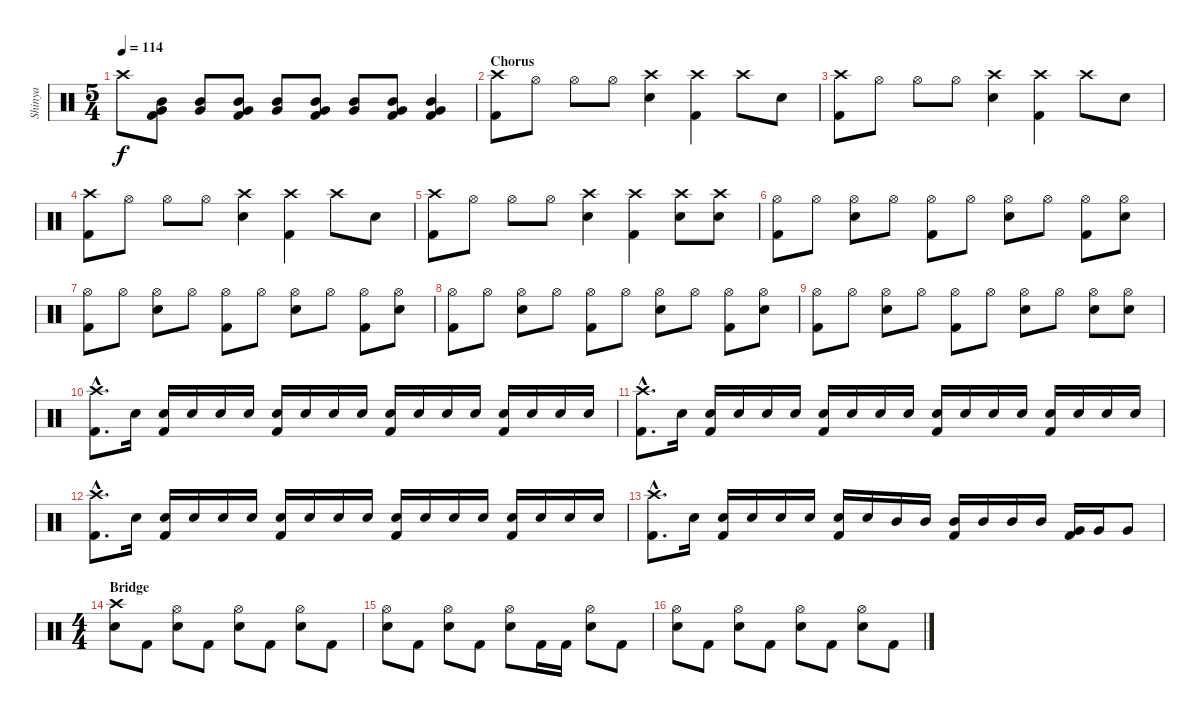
\track ("Shinya" "Shinya") {instrument percussion}
\staff {score}
\articulation defaults
\ts (5 4)
\tempo 114
\clef neutral
\ks c "Crash high (hit)".8{dy f}
("Kick (hit) 2" "Very Low Tom (hit)" "Mid Tom (hit)").8 ("Mid Tom (hit)" "Very Low Tom (hit)").8 ("Very Low Tom (hit)" "Kick (hit) 2" "Mid Tom (hit)").8 ("Mid Tom (hit)" "Very Low Tom (hit)").8 ("Very Low Tom (hit)" "Kick (hit) 2" "Mid Tom (hit)").8 ("Mid Tom (hit)" "Very Low Tom (hit)").8 ("Very Low Tom (hit)" "Kick (hit) 2" "Mid Tom (hit)").8 ("Very Low Tom (hit)" "Mid Tom (hit)" "Kick (hit) 2").4 |
\section ("" "Chorus")
("Crash high (hit)" "Kick (hit) 2").8 "Hi-Hat (open)".8 "Hi-Hat (open)".8 "Hi-Hat (open)".8 ("Crash high (hit)" "Snare (hit) 2").4 ("Crash high (hit)" "Kick (hit) 2").4 "Crash high (hit)".8 "Snare (hit) 2".8 |
("Crash high (hit)" "Kick (hit) 2").8 "Hi-Hat (open)".8 "Hi-Hat (open)".8 "Hi-Hat (open)".8 ("Crash high (hit)" "Snare (hit) 2").4 ("Crash high (hit)" "Kick (hit) 2").4 "Crash high (hit)".8 "Snare (hit) 2".8 |
("Crash high (hit)" "Kick (hit) 2").8 "Hi-Hat (open)".8 "Hi-Hat (open)".8 "Hi-Hat (open)".8 ("Crash high (hit)" "Snare (hit) 2").4 ("Crash high (hit)" "Kick (hit) 2").4 "Crash high (hit)".8 "Snare (hit) 2".8 |
("Crash high (hit)" "Kick (hit) 2").8 "Hi-Hat (open)".8 "Hi-Hat (open)".8 "Hi-Hat (open)".8 ("Crash high (hit)" "Snare (hit) 2").4 ("Crash high (hit)" "Kick (hit) 2").4 ("Crash high (hit)" "Snare (hit) 2").8 ("Crash high (hit)" "Snare (hit) 2").8 |
("Hi-Hat (open)" "Kick (hit) 2").8 "Hi-Hat (open)".8 ("Hi-Hat (open)" "Snare (hit) 2").8 "Hi-Hat (open)".8 ("Hi-Hat (open)" "Kick (hit) 2").8 "Hi-Hat (open)".8 ("Hi-Hat (open)" "Snare (hit) 2").8 "Hi-Hat (open)".8 ("Hi-Hat (open)" "Kick (hit) 2").8 ("Hi-Hat (open)" "Snare (hit) 2").8 |
("Hi-Hat (open)" "Kick (hit) 2").8 "Hi-Hat (open)".8 ("Hi-Hat (open)" "Snare (hit) 2").8 "Hi-Hat (open)".8 ("Hi-Hat (open)" "Kick (hit) 2").8 "Hi-Hat (open)".8 ("Hi-Hat (open)" "Snare (hit) 2").8 "Hi-Hat (open)".8 ("Hi-Hat (open)" "Kick (hit) 2").8 ("Hi-Hat (open)" "Snare (hit) 2").8 |
("Hi-Hat (open)" "Kick (hit) 2").8 "Hi-Hat (open)".8 ("Hi-Hat (open)" "Snare (hit) 2").8 "Hi-Hat (open)".8 ("Hi-Hat (open)" "Kick (hit) 2").8 "Hi-Hat (open)".8 ("Hi-Hat (open)" "Snare (hit) 2").8 "Hi-Hat (open)".8 ("Hi-Hat (open)" "Kick (hit) 2").8 ("Hi-Hat (open)" "Snare (hit) 2").8 |
("Hi-Hat (open)" "Kick (hit) 2").8 "Hi-Hat (open)".8 ("Hi-Hat (open)" "Snare (hit) 2").8 "Hi-Hat (open)".8 ("Hi-Hat (open)" "Kick (hit) 2").8 "Hi-Hat (open)".8 ("Hi-Hat (open)" "Snare (hit) 2").8 "Hi-Hat (open)".8 ("Hi-Hat (open)" "Snare (hit) 2").8 ("Hi-Hat (open)" "Snare (hit) 2").8 |
("Crash high (hit)"{hac} "Kick (hit) 2"{hac}).8{d} "Snare (hit) 2".16 ("Snare (hit) 2" "Kick (hit) 2").16 "Snare (hit) 2".16 "Snare (hit) 2".16 "Snare (hit) 2".16 ("Snare (hit) 2" "Kick (hit) 2").16 "Snare (hit) 2".16 "Snare (hit) 2".16 "Snare (hit) 2".16 ("Snare (hit) 2" "Kick (hit) 2").16 "Snare (hit) 2".16 "Snare (hit) 2".16 "Snare (hit) 2".16 ("Snare (hit) 2" "Kick (hit) 2").16 "Snare (hit) 2".16 "Snare (hit) 2".16 "Snare (hit) 2".16 |
("Crash high (hit)"{hac} "Kick (hit) 2"{hac}).8{d} "Snare (hit) 2".16 ("Snare (hit) 2" "Kick (hit) 2").16 "Snare (hit) 2".16 "Snare (hit) 2".16 "Snare (hit) 2".16 ("Snare (hit) 2" "Kick (hit) 2").16 "Snare (hit) 2".16 "Snare (hit) 2".16 "Snare (hit) 2".16 ("Snare (hit) 2" "Kick (hit) 2").16 "Snare (hit) 2".16 "Snare (hit) 2".16 "Snare (hit) 2".16 ("Snare (hit) 2" "Kick (hit) 2").16 "Snare (hit) 2".16 "Snare (hit) 2".16 "Snare (hit) 2".16 |
("Crash high (hit)"{hac} "Kick (hit) 2"{hac}).8{d} "Snare (hit) 2".16 ("Snare (hit) 2" "Kick (hit) 2").16 "Snare (hit) 2".16 "Snare (hit) 2".16 "Snare (hit) 2".16 ("Snare (hit) 2" "Kick (hit) 2").16 "Snare (hit) 2".16 "Snare (hit) 2".16 "Snare (hit) 2".16 ("Snare (hit) 2" "Kick (hit) 2").16 "Snare (hit) 2".16 "Snare (hit) 2".16 "Snare (hit) 2".16 ("Snare (hit) 2" "Kick (hit) 2").16 "Snare (hit) 2".16 "Snare (hit) 2".16 "Snare (hit) 2".16 |
("Crash high (hit)"{hac} "Kick (hit) 2"{hac}).8{d} "Snare (hit) 2".16 ("Snare (hit) 2" "Kick (hit) 2").16 "Snare (hit) 2".16 "Snare (hit) 2".16 "Snare (hit) 2".16 ("Snare (hit) 2" "Kick (hit) 2").16 "Snare (hit) 2".16 "Mid Tom (hit)".16 "Mid Tom (hit)".16 ("Mid Tom (hit)" "Kick (hit) 2").16 "Mid Tom (hit)".16 "Mid Tom (hit)".16 "Mid Tom (hit)".16 ("Very Low Tom (hit)" "Kick (hit) 2").16 "Very Low Tom (hit)".16 "Very Low Tom (hit)".8 |
\ts (4 4)
\section ("" "Bridge")
("Crash high (hit)" "Snare (hit) 2").8 "Kick (hit) 2".8 ("Hi-Hat (open)" "Snare (hit) 2").8 "Kick (hit) 2".8 ("Hi-Hat (open)" "Snare (hit) 2").8 "Kick (hit) 2".8 ("Hi-Hat (open)" "Snare (hit) 2").8 "Kick (hit) 2".8 |
("Snare (hit) 2" "Hi-Hat (open)").8 "Kick (hit) 2".8 ("Hi-Hat (open)" "Snare (hit) 2").8 "Kick (hit) 2".8 ("Hi-Hat (open)" "Snare (hit) 2").8 "Kick (hit) 2".16 "Kick (hit) 2".16 ("Hi-Hat (open)" "Snare (hit) 2").8 "Kick (hit) 2".8 |
("Snare (hit) 2" "Hi-Hat (open)").8 "Kick (hit) 2".8 ("Hi-Hat (open)" "Snare (hit) 2").8 "Kick (hit) 2".8 ("Hi-Hat (open)" "Snare (hit) 2").8 "Kick (hit) 2".8 ("Hi-Hat (open)" "Snare (hit) 2").8 "Kick (hit) 2".8
